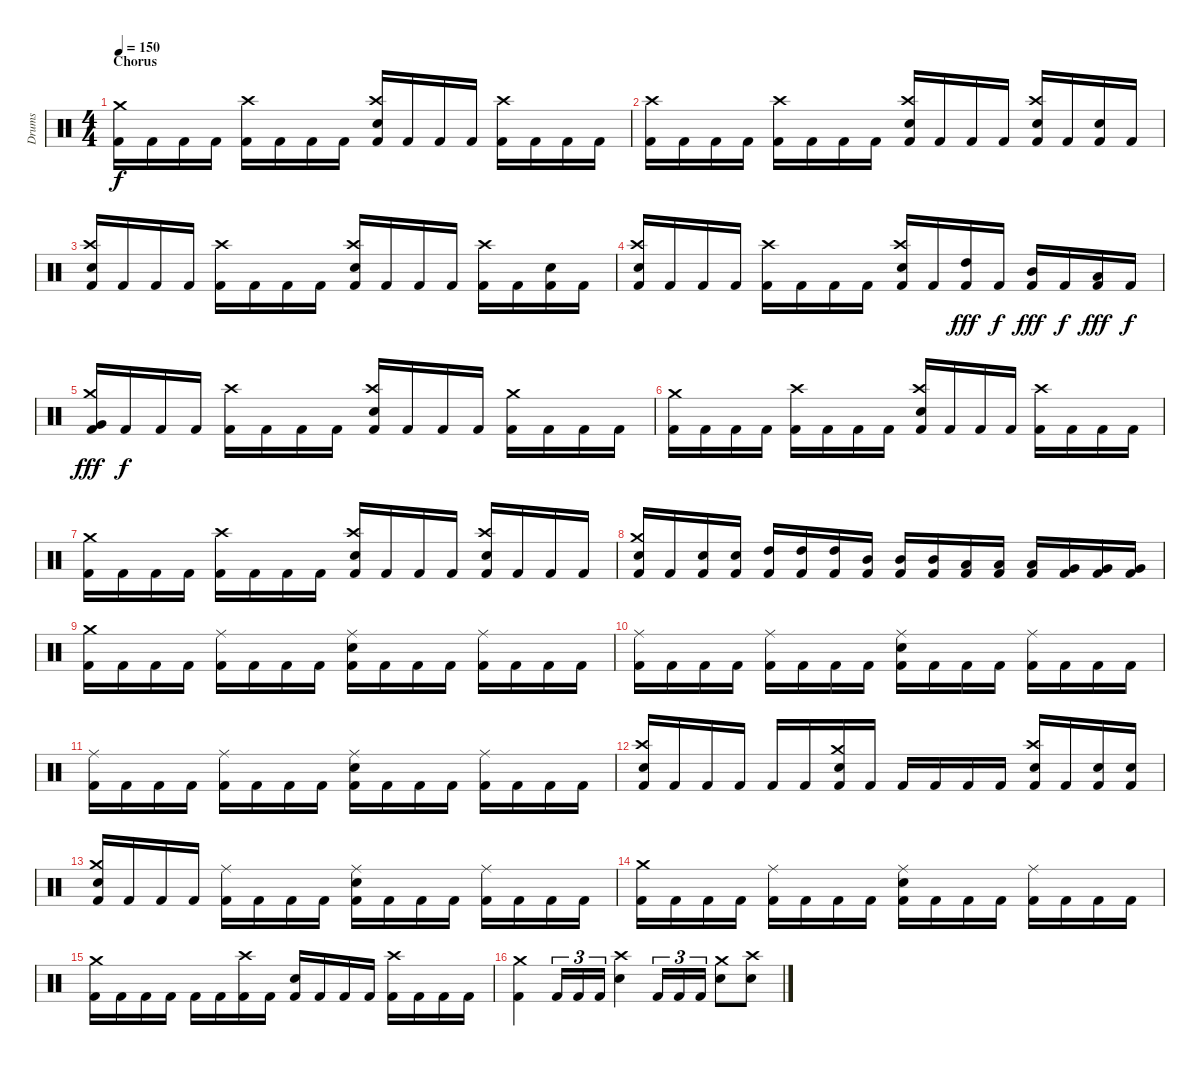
\track ("Drums" "Drums") {instrument percussion}
\staff {score}
\articulation defaults
\ts (4 4)
\section ("" "Chorus")
\tempo 150
\clef neutral
\ks c
("Kick (hit) 2" "Crash medium (hit)").16{dy f} "Kick (hit) 2".16 "Kick (hit) 2".16 "Kick (hit) 2".16 ("Kick (hit) 2" "Crash high (hit)").16 "Kick (hit) 2".16 "Kick (hit) 2".16 "Kick (hit) 2".16 ("Kick (hit) 2" "Electric Snare (hit)" "Crash high (hit)").16 "Kick (hit) 2".16 "Kick (hit) 2".16 "Kick (hit) 2".16 ("Kick (hit) 2" "Crash high (hit)").16 "Kick (hit) 2".16 "Kick (hit) 2".16 "Kick (hit) 2".16 |
("Kick (hit) 2" "Crash high (hit)").16 "Kick (hit) 2".16 "Kick (hit) 2".16 "Kick (hit) 2".16 ("Kick (hit) 2" "Crash high (hit)").16 "Kick (hit) 2".16 "Kick (hit) 2".16 "Kick (hit) 2".16 ("Kick (hit) 2" "Electric Snare (hit)" "Crash high (hit)").16 "Kick (hit) 2".16 "Kick (hit) 2".16 "Kick (hit) 2".16 ("Kick (hit) 2" "Electric Snare (hit)" "Crash high (hit)").16 "Kick (hit) 2".16 ("Kick (hit) 2" "Electric Snare (hit)").16 "Kick (hit) 2".16 |
("Kick (hit) 2" "Electric Snare (hit)" "Crash high (hit)").16 "Kick (hit) 2".16 "Kick (hit) 2".16 "Kick (hit) 2".16 ("Kick (hit) 2" "Crash high (hit)").16 "Kick (hit) 2".16 "Kick (hit) 2".16 "Kick (hit) 2".16 ("Kick (hit) 2" "Electric Snare (hit)" "Crash high (hit)").16 "Kick (hit) 2".16 "Kick (hit) 2".16 "Kick (hit) 2".16 ("Kick (hit) 2" "Crash high (hit)").16 "Kick (hit) 2".16 ("Kick (hit) 2" "Electric Snare (hit)").16 "Kick (hit) 2".16 |
("Kick (hit) 2" "Electric Snare (hit)" "Crash high (hit)").16 "Kick (hit) 2".16 "Kick (hit) 2".16 "Kick (hit) 2".16 ("Kick (hit) 2" "Crash high (hit)").16 "Kick (hit) 2".16 "Kick (hit) 2".16 "Kick (hit) 2".16 ("Kick (hit) 2" "Electric Snare (hit)" "Crash high (hit)").16 "Kick (hit) 2".16 ("Kick (hit) 2" "High Tom (hit)").16{dy fff} "Kick (hit) 2".16{dy f} ("Kick (hit) 2" "Mid Tom (hit)").16{dy fff} "Kick (hit) 2".16{dy f} ("Kick (hit) 2" "Low Tom (hit)").16{dy fff} "Kick (hit) 2".16{dy f} |
("Kick (hit) 2" "Very Low Tom (hit)" "Crash medium (hit)").16{dy fff} "Kick (hit) 2".16{dy f} "Kick (hit) 2".16 "Kick (hit) 2".16 ("Kick (hit) 2" "Crash high (hit)").16 "Kick (hit) 2".16 "Kick (hit) 2".16 "Kick (hit) 2".16 ("Kick (hit) 2" "Electric Snare (hit)" "Crash high (hit)").16 "Kick (hit) 2".16 "Kick (hit) 2".16 "Kick (hit) 2".16 ("Kick (hit) 2" "Crash medium (hit)").16 "Kick (hit) 2".16 "Kick (hit) 2".16 "Kick (hit) 2".16 |
("Kick (hit) 2" "Crash medium (hit)").16 "Kick (hit) 2".16 "Kick (hit) 2".16 "Kick (hit) 2".16 ("Kick (hit) 2" "Crash high (hit)").16 "Kick (hit) 2".16 "Kick (hit) 2".16 "Kick (hit) 2".16 ("Kick (hit) 2" "Electric Snare (hit)" "Crash high (hit)").16 "Kick (hit) 2".16 "Kick (hit) 2".16 "Kick (hit) 2".16 ("Kick (hit) 2" "Crash high (hit)").16 "Kick (hit) 2".16 "Kick (hit) 2".16 "Kick (hit) 2".16 |
("Kick (hit) 2" "Crash medium (hit)").16 "Kick (hit) 2".16 "Kick (hit) 2".16 "Kick (hit) 2".16 ("Kick (hit) 2" "Crash high (hit)").16 "Kick (hit) 2".16 "Kick (hit) 2".16 "Kick (hit) 2".16 ("Kick (hit) 2" "Electric Snare (hit)" "Crash high (hit)").16 "Kick (hit) 2".16 "Kick (hit) 2".16 "Kick (hit) 2".16 ("Kick (hit) 2" "Electric Snare (hit)" "Crash high (hit)").16 "Kick (hit) 2".16 "Kick (hit) 2".16 "Kick (hit) 2".16 |
("Kick (hit) 2" "Electric Snare (hit)" "Crash medium (hit)").16 "Kick (hit) 2".16 ("Kick (hit) 2" "Electric Snare (hit)").16 ("Kick (hit) 2" "Electric Snare (hit)").16 ("Kick (hit) 2" "High Tom (hit)").16 ("Kick (hit) 2" "High Tom (hit)").16 ("Kick (hit) 2" "High Tom (hit)").16 ("Kick (hit) 2" "Mid Tom (hit)").16 ("Kick (hit) 2" "Mid Tom (hit)").16 ("Kick (hit) 2" "Mid Tom (hit)").16 ("Kick (hit) 2" "Low Tom (hit)").16 ("Kick (hit) 2" "Low Tom (hit)").16 ("Kick (hit) 2" "Low Tom (hit)").16 ("Kick (hit) 2" "Very Low Tom (hit)").16 ("Kick (hit) 2" "Very Low Tom (hit)").16 ("Kick (hit) 2" "Very Low Tom (hit)").16 |
("Kick (hit) 2" "Crash medium (hit)").16 "Kick (hit) 2".16 "Kick (hit) 2".16 "Kick (hit) 2".16 ("Kick (hit) 2" "Ride (middle)").16 "Kick (hit) 2".16 "Kick (hit) 2".16 "Kick (hit) 2".16 ("Kick (hit) 2" "Electric Snare (hit)" "Ride (middle)").16 "Kick (hit) 2".16 "Kick (hit) 2".16 "Kick (hit) 2".16 ("Kick (hit) 2" "Ride (middle)").16 "Kick (hit) 2".16 "Kick (hit) 2".16 "Kick (hit) 2".16 |
("Kick (hit) 2" "Ride (middle)").16 "Kick (hit) 2".16 "Kick (hit) 2".16 "Kick (hit) 2".16 ("Kick (hit) 2" "Ride (middle)").16 "Kick (hit) 2".16 "Kick (hit) 2".16 "Kick (hit) 2".16 ("Kick (hit) 2" "Electric Snare (hit)" "Ride (middle)").16 "Kick (hit) 2".16 "Kick (hit) 2".16 "Kick (hit) 2".16 ("Kick (hit) 2" "Ride (middle)").16 "Kick (hit) 2".16 "Kick (hit) 2".16 "Kick (hit) 2".16 |
("Kick (hit) 2" "Ride (middle)").16 "Kick (hit) 2".16 "Kick (hit) 2".16 "Kick (hit) 2".16 ("Kick (hit) 2" "Ride (middle)").16 "Kick (hit) 2".16 "Kick (hit) 2".16 "Kick (hit) 2".16 ("Kick (hit) 2" "Electric Snare (hit)" "Ride (middle)").16 "Kick (hit) 2".16 "Kick (hit) 2".16 "Kick (hit) 2".16 ("Kick (hit) 2" "Ride (middle)").16 "Kick (hit) 2".16 "Kick (hit) 2".16 "Kick (hit) 2".16 |
("Kick (hit) 2" "Electric Snare (hit)" "Crash high (hit)").16 "Kick (hit) 2".16 "Kick (hit) 2".16 "Kick (hit) 2".16 "Kick (hit) 2".16 "Kick (hit) 2".16 ("Kick (hit) 2" "Electric Snare (hit)" "Crash medium (hit)").16 "Kick (hit) 2".16 "Kick (hit) 2".16 "Kick (hit) 2".16 "Kick (hit) 2".16 "Kick (hit) 2".16 ("Kick (hit) 2" "Electric Snare (hit)" "Crash high (hit)").16 "Kick (hit) 2".16 ("Kick (hit) 2" "Electric Snare (hit)").16 ("Kick (hit) 2" "Electric Snare (hit)").16 |
("Kick (hit) 2" "Electric Snare (hit)" "Crash medium (hit)").16 "Kick (hit) 2".16 "Kick (hit) 2".16 "Kick (hit) 2".16 ("Kick (hit) 2" "Ride (middle)").16 "Kick (hit) 2".16 "Kick (hit) 2".16 "Kick (hit) 2".16 ("Kick (hit) 2" "Electric Snare (hit)" "Ride (middle)").16 "Kick (hit) 2".16 "Kick (hit) 2".16 "Kick (hit) 2".16 ("Kick (hit) 2" "Ride (middle)").16 "Kick (hit) 2".16 "Kick (hit) 2".16 "Kick (hit) 2".16 |
("Kick (hit) 2" "Crash medium (hit)").16 "Kick (hit) 2".16 "Kick (hit) 2".16 "Kick (hit) 2".16 ("Kick (hit) 2" "Ride (middle)").16 "Kick (hit) 2".16 "Kick (hit) 2".16 "Kick (hit) 2".16 ("Kick (hit) 2" "Electric Snare (hit)" "Ride (middle)").16 "Kick (hit) 2".16 "Kick (hit) 2".16 "Kick (hit) 2".16 ("Kick (hit) 2" "Ride (middle)").16 "Kick (hit) 2".16 "Kick (hit) 2".16 "Kick (hit) 2".16 |
("Kick (hit) 2" "Crash medium (hit)").16 "Kick (hit) 2".16 "Kick (hit) 2".16 "Kick (hit) 2".16 "Kick (hit) 2".16 "Kick (hit) 2".16 ("Kick (hit) 2" "Crash high (hit)").16 "Kick (hit) 2".16 ("Kick (hit) 2" "Electric Snare (hit)").16 "Kick (hit) 2".16 "Kick (hit) 2".16 "Kick (hit) 2".16 ("Kick (hit) 2" "Crash high (hit)").16 "Kick (hit) 2".16 "Kick (hit) 2".16 "Kick (hit) 2".16 |
("Kick (hit) 2" "Crash medium (hit)").4 "Kick (hit) 2".16{tu (3 2)} "Kick (hit) 2".16{tu (3 2)} "Kick (hit) 2".16{tu (3 2)} ("Electric Snare (hit)" "Crash high (hit)").4 "Kick (hit) 2".16{tu (3 2)} "Kick (hit) 2".16{tu (3 2)} "Kick (hit) 2".16{tu (3 2)} ("Electric Snare (hit)" "Crash medium (hit)").8 ("Electric Snare (hit)" "Crash high (hit)").8
